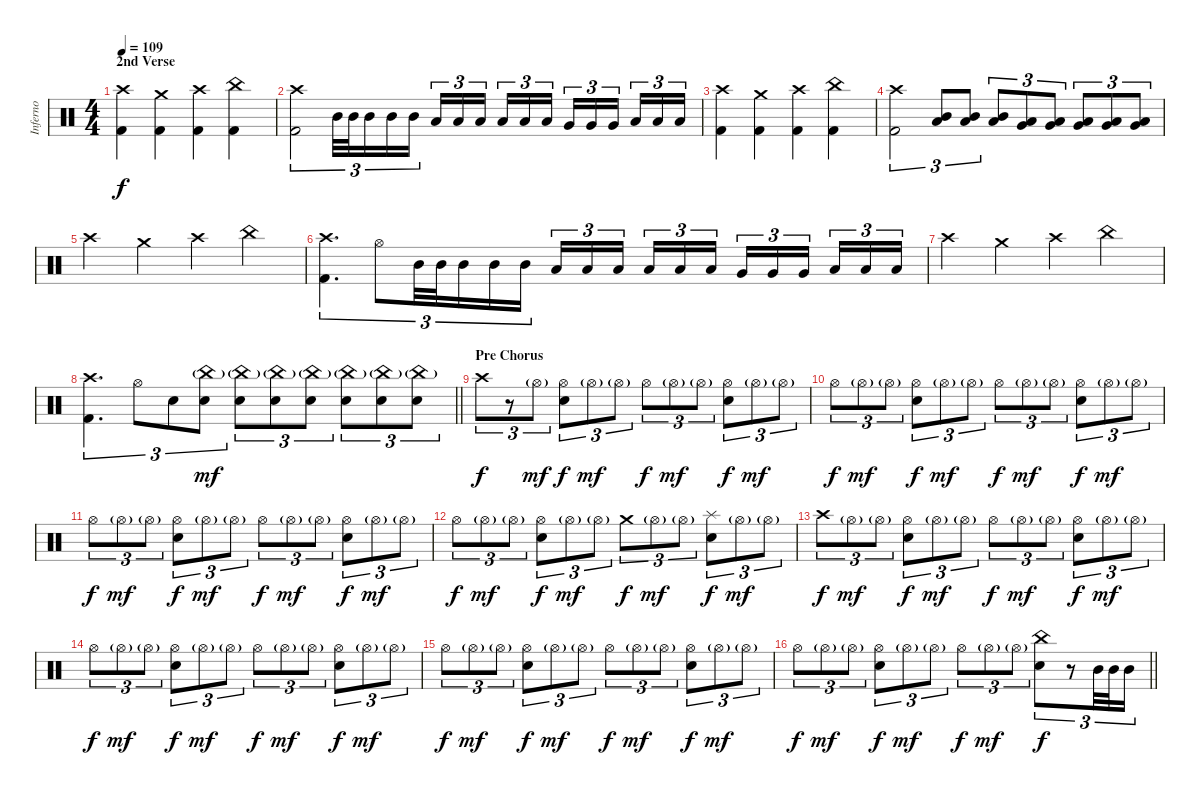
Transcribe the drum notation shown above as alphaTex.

\track ("Inferno" "Inferno") {instrument percussion}
\staff {score}
\articulation defaults
\ts (4 4)
\section ("" "2nd Verse")
\tempo 109
\clef neutral
\ks c
("Crash high (hit)" "Kick (hit) 2").4{dy f} ("Crash medium (hit)" "Kick (hit) 2").4 ("Crash high (hit)" "Kick (hit) 2").4 ("China (hit)" "Kick (hit) 2").4 |
("Crash high (hit)" "Kick (hit) 2").2{tu (3 2)} "Mid Tom (hit)".32{tu (3 2)} "Mid Tom (hit)".32{tu (3 2)} "Mid Tom (hit)".16{tu (3 2)} "Mid Tom (hit)".16{tu (3 2)} "Mid Tom (hit)".16{tu (3 2)} "Low Tom (hit)".16{tu (3 2)} "Low Tom (hit)".16{tu (3 2)} "Low Tom (hit)".16{tu (3 2) beam splitsecondary} "Low Tom (hit)".16{tu (3 2)} "Low Tom (hit)".16{tu (3 2)} "Low Tom (hit)".16{tu (3 2)} "Very Low Tom (hit)".16{tu (3 2)} "Very Low Tom (hit)".16{tu (3 2)} "Very Low Tom (hit)".16{tu (3 2) beam splitsecondary} "Low Floor Tom (hit)".16{tu (3 2)} "Low Floor Tom (hit)".16{tu (3 2)} "Low Floor Tom (hit)".16{tu (3 2)} |
("Crash high (hit)" "Kick (hit) 2").4 ("Crash medium (hit)" "Kick (hit) 2").4 ("Crash high (hit)" "Kick (hit) 2").4 ("China (hit)" "Kick (hit) 2").4 |
("Crash high (hit)" "Kick (hit) 2").2{tu (3 2)} ("Mid Tom (hit)" "Low Tom (hit)").8{tu (3 2)} ("Mid Tom (hit)" "Low Tom (hit)").8{tu (3 2)} ("Mid Tom (hit)" "Low Tom (hit)").8{tu (3 2)} ("Low Tom (hit)" "Very Low Tom (hit)").8{tu (3 2)} ("Low Tom (hit)" "Very Low Tom (hit)").8{tu (3 2)} ("Low Tom (hit)" "Very Low Tom (hit)").8{tu (3 2)} ("Very Low Tom (hit)" "Low Floor Tom (hit)").8{tu (3 2)} ("Very Low Tom (hit)" "Low Floor Tom (hit)").8{tu (3 2)} |
"Crash high (hit)".4 "Crash medium (hit)".4 "Crash high (hit)".4 "China (hit)".4 |
("Crash high (hit)" "Kick (hit) 2").4{d tu (3 2)} "Hi-Hat (open)".8{tu (3 2)} "Mid Tom (hit)".32{tu (3 2)} "Mid Tom (hit)".32{tu (3 2) beam splitsecondary} "Mid Tom (hit)".16{tu (3 2)} "Mid Tom (hit)".16{tu (3 2)} "Mid Tom (hit)".16{tu (3 2)} "Low Tom (hit)".16{tu (3 2)} "Low Tom (hit)".16{tu (3 2)} "Low Tom (hit)".16{tu (3 2) beam splitsecondary} "Low Tom (hit)".16{tu (3 2)} "Low Tom (hit)".16{tu (3 2)} "Low Tom (hit)".16{tu (3 2)} "Very Low Tom (hit)".16{tu (3 2)} "Very Low Tom (hit)".16{tu (3 2)} "Very Low Tom (hit)".16{tu (3 2) beam splitsecondary} "Low Floor Tom (hit)".16{tu (3 2)} "Low Floor Tom (hit)".16{tu (3 2)} "Low Floor Tom (hit)".16{tu (3 2)} |
"Crash high (hit)".4 "Crash medium (hit)".4 "Crash high (hit)".4 "China (hit)".4 |
\barLineRight lightlight
("Crash high (hit)" "Kick (hit) 2").4{d tu (3 2)} "Hi-Hat (open)".8{tu (3 2)} "Snare (hit) 2".8{tu (3 2)} ("China (hit)"{g} "Snare (hit) 2").8{tu (3 2) dy mf} ("China (hit)"{g} "Snare (hit) 2").8{tu (3 2)} ("China (hit)"{g} "Snare (hit) 2").8{tu (3 2)} ("China (hit)"{g} "Snare (hit) 2").8{tu (3 2)} ("China (hit)"{g} "Snare (hit) 2").8{tu (3 2)} ("China (hit)"{g} "Snare (hit) 2").8{tu (3 2)} ("China (hit)"{g} "Snare (hit) 2").8{tu (3 2)} |
\section ("" "Pre Chorus")
"Crash high (hit)".8{tu (3 2) dy f} r.8{tu (3 2)} "Hi-Hat (open)"{g}.8{tu (3 2) dy mf} ("Hi-Hat (open)" "Snare (hit) 2").8{tu (3 2) dy f} "Hi-Hat (open)"{g}.8{tu (3 2) dy mf} "Hi-Hat (open)"{g}.8{tu (3 2)} "Hi-Hat (open)".8{tu (3 2) dy f} "Hi-Hat (open)"{g}.8{tu (3 2) dy mf} "Hi-Hat (open)"{g}.8{tu (3 2)} ("Hi-Hat (open)" "Snare (hit) 2").8{tu (3 2) dy f} "Hi-Hat (open)"{g}.8{tu (3 2) dy mf} "Hi-Hat (open)"{g}.8{tu (3 2)} |
"Hi-Hat (open)".8{tu (3 2) dy f} "Hi-Hat (open)"{g}.8{tu (3 2) dy mf} "Hi-Hat (open)"{g}.8{tu (3 2)} ("Hi-Hat (open)" "Snare (hit) 2").8{tu (3 2) dy f} "Hi-Hat (open)"{g}.8{tu (3 2) dy mf} "Hi-Hat (open)"{g}.8{tu (3 2)} "Hi-Hat (open)".8{tu (3 2) dy f} "Hi-Hat (open)"{g}.8{tu (3 2) dy mf} "Hi-Hat (open)"{g}.8{tu (3 2)} ("Hi-Hat (open)" "Snare (hit) 2").8{tu (3 2) dy f} "Hi-Hat (open)"{g}.8{tu (3 2) dy mf} "Hi-Hat (open)"{g}.8{tu (3 2)} |
"Hi-Hat (open)".8{tu (3 2) dy f} "Hi-Hat (open)"{g}.8{tu (3 2) dy mf} "Hi-Hat (open)"{g}.8{tu (3 2)} ("Hi-Hat (open)" "Snare (hit) 2").8{tu (3 2) dy f} "Hi-Hat (open)"{g}.8{tu (3 2) dy mf} "Hi-Hat (open)"{g}.8{tu (3 2)} "Hi-Hat (open)".8{tu (3 2) dy f} "Hi-Hat (open)"{g}.8{tu (3 2) dy mf} "Hi-Hat (open)"{g}.8{tu (3 2)} ("Hi-Hat (open)" "Snare (hit) 2").8{tu (3 2) dy f} "Hi-Hat (open)"{g}.8{tu (3 2) dy mf} "Hi-Hat (open)"{g}.8{tu (3 2)} |
"Hi-Hat (open)".8{tu (3 2) dy f} "Hi-Hat (open)"{g}.8{tu (3 2) dy mf} "Hi-Hat (open)"{g}.8{tu (3 2)} ("Hi-Hat (open)" "Snare (hit) 2").8{tu (3 2) dy f} "Hi-Hat (open)"{g}.8{tu (3 2) dy mf} "Hi-Hat (open)"{g}.8{tu (3 2)} "Crash medium (hit)".8{tu (3 2) dy f} "Hi-Hat (open)"{g}.8{tu (3 2) dy mf} "Hi-Hat (open)"{g}.8{tu (3 2)} ("Splash (hit)" "Snare (hit) 2").8{tu (3 2) dy f} "Hi-Hat (open)"{g}.8{tu (3 2) dy mf} "Hi-Hat (open)"{g}.8{tu (3 2)} |
"Crash high (hit)".8{tu (3 2) dy f} "Hi-Hat (open)"{g}.8{tu (3 2) dy mf} "Hi-Hat (open)"{g}.8{tu (3 2)} ("Hi-Hat (open)" "Snare (hit) 2").8{tu (3 2) dy f} "Hi-Hat (open)"{g}.8{tu (3 2) dy mf} "Hi-Hat (open)"{g}.8{tu (3 2)} "Hi-Hat (open)".8{tu (3 2) dy f} "Hi-Hat (open)"{g}.8{tu (3 2) dy mf} "Hi-Hat (open)"{g}.8{tu (3 2)} ("Hi-Hat (open)" "Snare (hit) 2").8{tu (3 2) dy f} "Hi-Hat (open)"{g}.8{tu (3 2) dy mf} "Hi-Hat (open)"{g}.8{tu (3 2)} |
"Hi-Hat (open)".8{tu (3 2) dy f} "Hi-Hat (open)"{g}.8{tu (3 2) dy mf} "Hi-Hat (open)"{g}.8{tu (3 2)} ("Hi-Hat (open)" "Snare (hit) 2").8{tu (3 2) dy f} "Hi-Hat (open)"{g}.8{tu (3 2) dy mf} "Hi-Hat (open)"{g}.8{tu (3 2)} "Hi-Hat (open)".8{tu (3 2) dy f} "Hi-Hat (open)"{g}.8{tu (3 2) dy mf} "Hi-Hat (open)"{g}.8{tu (3 2)} ("Hi-Hat (open)" "Snare (hit) 2").8{tu (3 2) dy f} "Hi-Hat (open)"{g}.8{tu (3 2) dy mf} "Hi-Hat (open)"{g}.8{tu (3 2)} |
"Hi-Hat (open)".8{tu (3 2) dy f} "Hi-Hat (open)"{g}.8{tu (3 2) dy mf} "Hi-Hat (open)"{g}.8{tu (3 2)} ("Hi-Hat (open)" "Snare (hit) 2").8{tu (3 2) dy f} "Hi-Hat (open)"{g}.8{tu (3 2) dy mf} "Hi-Hat (open)"{g}.8{tu (3 2)} "Hi-Hat (open)".8{tu (3 2) dy f} "Hi-Hat (open)"{g}.8{tu (3 2) dy mf} "Hi-Hat (open)"{g}.8{tu (3 2)} ("Hi-Hat (open)" "Snare (hit) 2").8{tu (3 2) dy f} "Hi-Hat (open)"{g}.8{tu (3 2) dy mf} "Hi-Hat (open)"{g}.8{tu (3 2)} |
\barLineRight lightlight "Hi-Hat (open)".8{tu (3 2) dy f} "Hi-Hat (open)"{g}.8{tu (3 2) dy mf} "Hi-Hat (open)"{g}.8{tu (3 2)}
("Hi-Hat (open)" "Snare (hit) 2").8{tu (3 2) dy f} "Hi-Hat (open)"{g}.8{tu (3 2) dy mf} "Hi-Hat (open)"{g}.8{tu (3 2)} "Hi-Hat (open)".8{tu (3 2) dy f} "Hi-Hat (open)"{g}.8{tu (3 2) dy mf} "Hi-Hat (open)"{g}.8{tu (3 2)} ("China (hit)" "Snare (hit) 2").8{tu (3 2) dy f} r.8{tu (3 2)} "Mid Tom (hit)".32{tu (3 2)} "Mid Tom (hit)".32{tu (3 2)} "Mid Tom (hit)".16{tu (3 2)}
